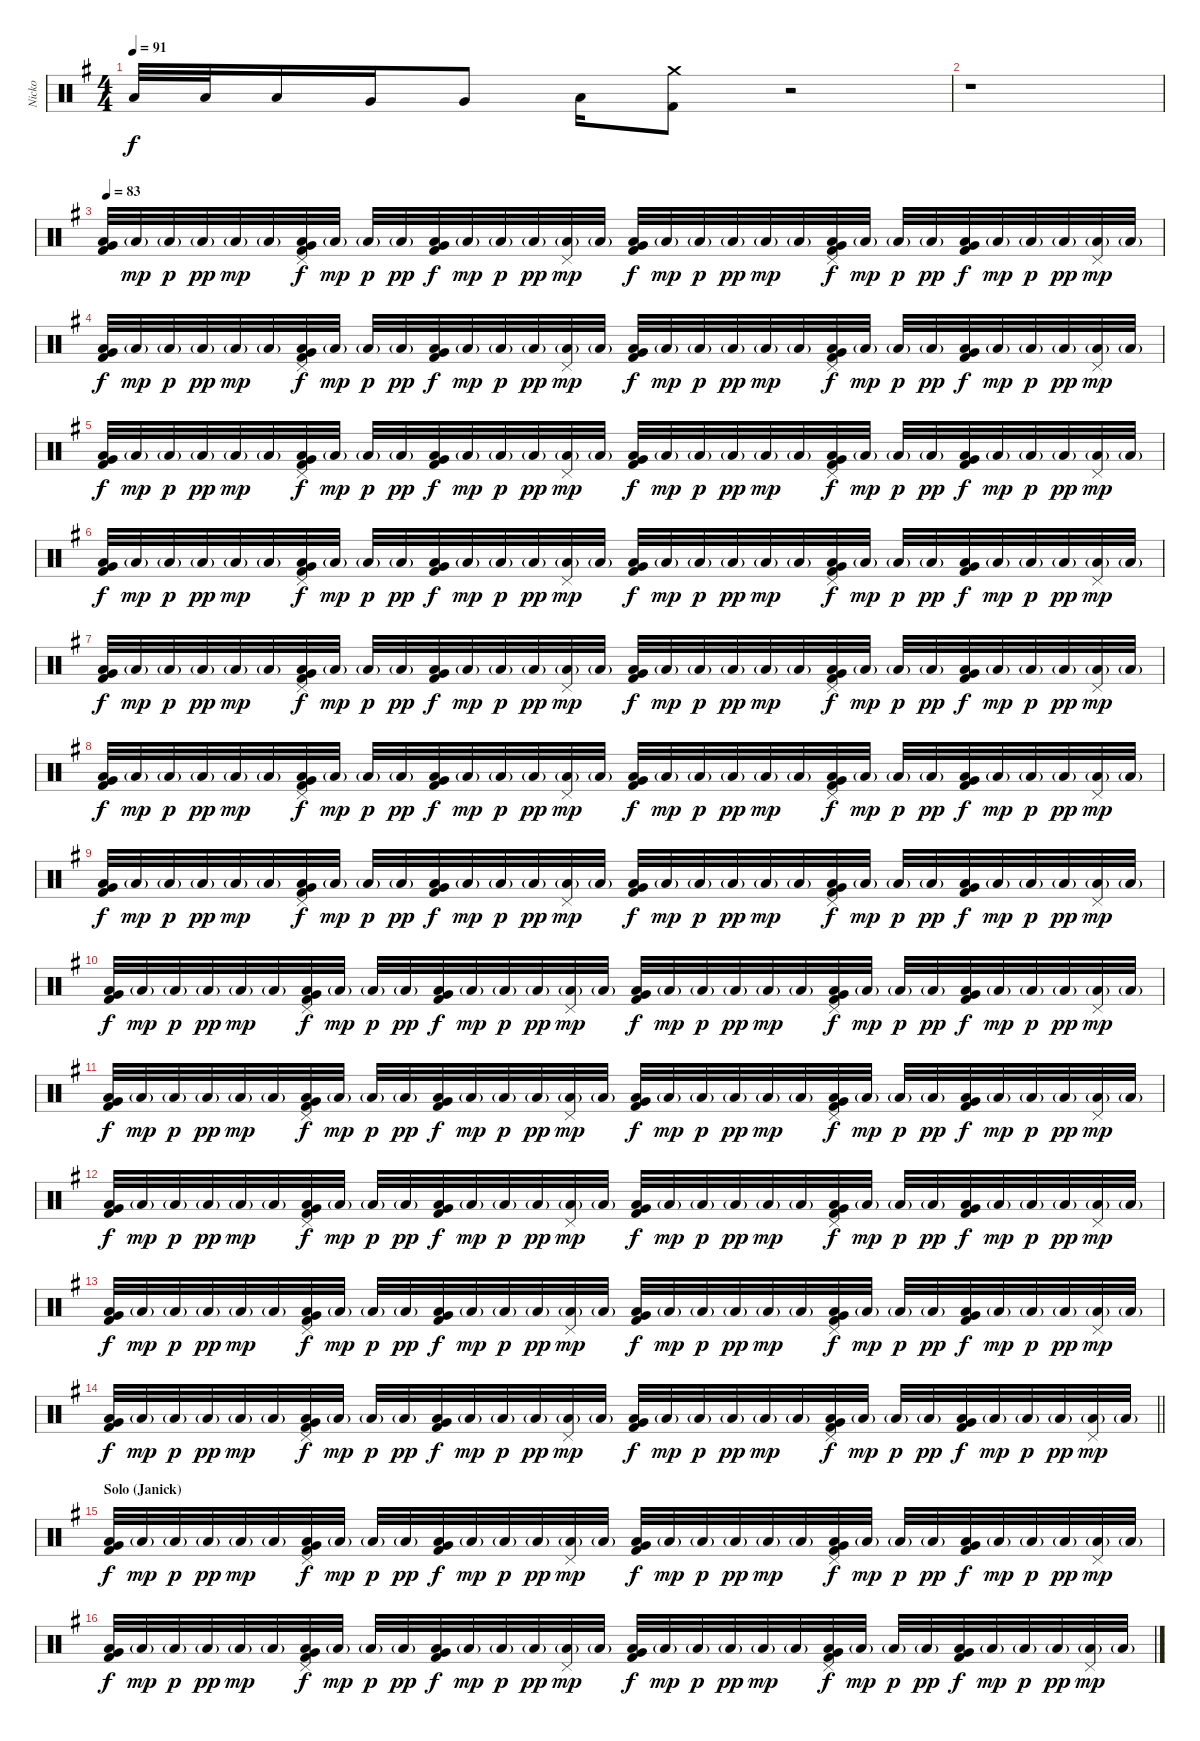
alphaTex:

\track ("Nicko" "Nicko") {instrument percussion}
\staff {score}
\articulation defaults
\ts (4 4)
\tempo 91
\clef neutral
\ks eminor "Low Tom (hit)".32{dy f} "Low Tom (hit)".32 "Low Tom (hit)".16 "Very Low Tom (hit)".16 "Very Low Tom (hit)".8 "Low Floor Tom (hit)".16
("Crash medium (hit)" "Kick (hit) 2").8 r.2 |
r.1 |
\tempo 83
("Low Floor Tom (hit)" "Very Low Tom (hit)" "Kick (hit) 2").32 "Low Floor Tom (hit)"{g}.32{dy mp} "Low Floor Tom (hit)"{g}.32{dy p} "Low Floor Tom (hit)"{g}.32{dy pp} "Low Floor Tom (hit)"{g}.32{dy mp} "Low Floor Tom (hit)"{g}.32 ("Pedal Hi-Hat (hit)" "Low Floor Tom (hit)" "Very Low Tom (hit)" "Kick (hit) 2").32{dy f} "Low Floor Tom (hit)"{g}.32{dy mp} "Low Floor Tom (hit)"{g}.32{dy p} "Low Floor Tom (hit)"{g}.32{dy pp} ("Low Floor Tom (hit)" "Very Low Tom (hit)" "Kick (hit) 2").32{dy f} "Low Floor Tom (hit)"{g}.32{dy mp} "Low Floor Tom (hit)"{g}.32{dy p} "Low Floor Tom (hit)"{g}.32{dy pp} ("Pedal Hi-Hat (hit)" "Low Floor Tom (hit)"{g}).32{dy mp} "Low Floor Tom (hit)"{g}.32 ("Low Floor Tom (hit)" "Very Low Tom (hit)" "Kick (hit) 2").32{dy f} "Low Floor Tom (hit)"{g}.32{dy mp} "Low Floor Tom (hit)"{g}.32{dy p} "Low Floor Tom (hit)"{g}.32{dy pp} "Low Floor Tom (hit)"{g}.32{dy mp} "Low Floor Tom (hit)"{g}.32 ("Pedal Hi-Hat (hit)" "Low Floor Tom (hit)" "Very Low Tom (hit)" "Kick (hit) 2").32{dy f} "Low Floor Tom (hit)"{g}.32{dy mp} "Low Floor Tom (hit)"{g}.32{dy p} "Low Floor Tom (hit)"{g}.32{dy pp} ("Low Floor Tom (hit)" "Very Low Tom (hit)" "Kick (hit) 2").32{dy f} "Low Floor Tom (hit)"{g}.32{dy mp} "Low Floor Tom (hit)"{g}.32{dy p} "Low Floor Tom (hit)"{g}.32{dy pp} ("Pedal Hi-Hat (hit)" "Low Floor Tom (hit)"{g}).32{dy mp} "Low Floor Tom (hit)"{g}.32 |
("Low Floor Tom (hit)" "Very Low Tom (hit)" "Kick (hit) 2").32{dy f} "Low Floor Tom (hit)"{g}.32{dy mp} "Low Floor Tom (hit)"{g}.32{dy p} "Low Floor Tom (hit)"{g}.32{dy pp} "Low Floor Tom (hit)"{g}.32{dy mp} "Low Floor Tom (hit)"{g}.32 ("Pedal Hi-Hat (hit)" "Low Floor Tom (hit)" "Very Low Tom (hit)" "Kick (hit) 2").32{dy f} "Low Floor Tom (hit)"{g}.32{dy mp} "Low Floor Tom (hit)"{g}.32{dy p} "Low Floor Tom (hit)"{g}.32{dy pp} ("Low Floor Tom (hit)" "Very Low Tom (hit)" "Kick (hit) 2").32{dy f} "Low Floor Tom (hit)"{g}.32{dy mp} "Low Floor Tom (hit)"{g}.32{dy p} "Low Floor Tom (hit)"{g}.32{dy pp} ("Pedal Hi-Hat (hit)" "Low Floor Tom (hit)"{g}).32{dy mp} "Low Floor Tom (hit)"{g}.32 ("Low Floor Tom (hit)" "Very Low Tom (hit)" "Kick (hit) 2").32{dy f} "Low Floor Tom (hit)"{g}.32{dy mp} "Low Floor Tom (hit)"{g}.32{dy p} "Low Floor Tom (hit)"{g}.32{dy pp} "Low Floor Tom (hit)"{g}.32{dy mp} "Low Floor Tom (hit)"{g}.32 ("Pedal Hi-Hat (hit)" "Low Floor Tom (hit)" "Very Low Tom (hit)" "Kick (hit) 2").32{dy f} "Low Floor Tom (hit)"{g}.32{dy mp} "Low Floor Tom (hit)"{g}.32{dy p} "Low Floor Tom (hit)"{g}.32{dy pp} ("Low Floor Tom (hit)" "Very Low Tom (hit)" "Kick (hit) 2").32{dy f} "Low Floor Tom (hit)"{g}.32{dy mp} "Low Floor Tom (hit)"{g}.32{dy p} "Low Floor Tom (hit)"{g}.32{dy pp} ("Pedal Hi-Hat (hit)" "Low Floor Tom (hit)"{g}).32{dy mp} "Low Floor Tom (hit)"{g}.32 |
("Low Floor Tom (hit)" "Very Low Tom (hit)" "Kick (hit) 2").32{dy f} "Low Floor Tom (hit)"{g}.32{dy mp} "Low Floor Tom (hit)"{g}.32{dy p} "Low Floor Tom (hit)"{g}.32{dy pp} "Low Floor Tom (hit)"{g}.32{dy mp} "Low Floor Tom (hit)"{g}.32 ("Pedal Hi-Hat (hit)" "Low Floor Tom (hit)" "Very Low Tom (hit)" "Kick (hit) 2").32{dy f} "Low Floor Tom (hit)"{g}.32{dy mp} "Low Floor Tom (hit)"{g}.32{dy p} "Low Floor Tom (hit)"{g}.32{dy pp} ("Low Floor Tom (hit)" "Very Low Tom (hit)" "Kick (hit) 2").32{dy f} "Low Floor Tom (hit)"{g}.32{dy mp} "Low Floor Tom (hit)"{g}.32{dy p} "Low Floor Tom (hit)"{g}.32{dy pp} ("Pedal Hi-Hat (hit)" "Low Floor Tom (hit)"{g}).32{dy mp} "Low Floor Tom (hit)"{g}.32 ("Low Floor Tom (hit)" "Very Low Tom (hit)" "Kick (hit) 2").32{dy f} "Low Floor Tom (hit)"{g}.32{dy mp} "Low Floor Tom (hit)"{g}.32{dy p} "Low Floor Tom (hit)"{g}.32{dy pp} "Low Floor Tom (hit)"{g}.32{dy mp} "Low Floor Tom (hit)"{g}.32 ("Pedal Hi-Hat (hit)" "Low Floor Tom (hit)" "Very Low Tom (hit)" "Kick (hit) 2").32{dy f} "Low Floor Tom (hit)"{g}.32{dy mp} "Low Floor Tom (hit)"{g}.32{dy p} "Low Floor Tom (hit)"{g}.32{dy pp} ("Low Floor Tom (hit)" "Very Low Tom (hit)" "Kick (hit) 2").32{dy f} "Low Floor Tom (hit)"{g}.32{dy mp} "Low Floor Tom (hit)"{g}.32{dy p} "Low Floor Tom (hit)"{g}.32{dy pp} ("Pedal Hi-Hat (hit)" "Low Floor Tom (hit)"{g}).32{dy mp} "Low Floor Tom (hit)"{g}.32 |
("Low Floor Tom (hit)" "Very Low Tom (hit)" "Kick (hit) 2").32{dy f} "Low Floor Tom (hit)"{g}.32{dy mp} "Low Floor Tom (hit)"{g}.32{dy p} "Low Floor Tom (hit)"{g}.32{dy pp} "Low Floor Tom (hit)"{g}.32{dy mp} "Low Floor Tom (hit)"{g}.32 ("Pedal Hi-Hat (hit)" "Low Floor Tom (hit)" "Very Low Tom (hit)" "Kick (hit) 2").32{dy f} "Low Floor Tom (hit)"{g}.32{dy mp} "Low Floor Tom (hit)"{g}.32{dy p} "Low Floor Tom (hit)"{g}.32{dy pp} ("Low Floor Tom (hit)" "Very Low Tom (hit)" "Kick (hit) 2").32{dy f} "Low Floor Tom (hit)"{g}.32{dy mp} "Low Floor Tom (hit)"{g}.32{dy p} "Low Floor Tom (hit)"{g}.32{dy pp} ("Pedal Hi-Hat (hit)" "Low Floor Tom (hit)"{g}).32{dy mp} "Low Floor Tom (hit)"{g}.32 ("Low Floor Tom (hit)" "Very Low Tom (hit)" "Kick (hit) 2").32{dy f} "Low Floor Tom (hit)"{g}.32{dy mp} "Low Floor Tom (hit)"{g}.32{dy p} "Low Floor Tom (hit)"{g}.32{dy pp} "Low Floor Tom (hit)"{g}.32{dy mp} "Low Floor Tom (hit)"{g}.32 ("Pedal Hi-Hat (hit)" "Low Floor Tom (hit)" "Very Low Tom (hit)" "Kick (hit) 2").32{dy f} "Low Floor Tom (hit)"{g}.32{dy mp} "Low Floor Tom (hit)"{g}.32{dy p} "Low Floor Tom (hit)"{g}.32{dy pp} ("Low Floor Tom (hit)" "Very Low Tom (hit)" "Kick (hit) 2").32{dy f} "Low Floor Tom (hit)"{g}.32{dy mp} "Low Floor Tom (hit)"{g}.32{dy p} "Low Floor Tom (hit)"{g}.32{dy pp} ("Pedal Hi-Hat (hit)" "Low Floor Tom (hit)"{g}).32{dy mp} "Low Floor Tom (hit)"{g}.32 |
("Low Floor Tom (hit)" "Very Low Tom (hit)" "Kick (hit) 2").32{dy f} "Low Floor Tom (hit)"{g}.32{dy mp} "Low Floor Tom (hit)"{g}.32{dy p} "Low Floor Tom (hit)"{g}.32{dy pp} "Low Floor Tom (hit)"{g}.32{dy mp} "Low Floor Tom (hit)"{g}.32 ("Pedal Hi-Hat (hit)" "Low Floor Tom (hit)" "Very Low Tom (hit)" "Kick (hit) 2").32{dy f} "Low Floor Tom (hit)"{g}.32{dy mp} "Low Floor Tom (hit)"{g}.32{dy p} "Low Floor Tom (hit)"{g}.32{dy pp} ("Low Floor Tom (hit)" "Very Low Tom (hit)" "Kick (hit) 2").32{dy f} "Low Floor Tom (hit)"{g}.32{dy mp} "Low Floor Tom (hit)"{g}.32{dy p} "Low Floor Tom (hit)"{g}.32{dy pp} ("Pedal Hi-Hat (hit)" "Low Floor Tom (hit)"{g}).32{dy mp} "Low Floor Tom (hit)"{g}.32 ("Low Floor Tom (hit)" "Very Low Tom (hit)" "Kick (hit) 2").32{dy f} "Low Floor Tom (hit)"{g}.32{dy mp} "Low Floor Tom (hit)"{g}.32{dy p} "Low Floor Tom (hit)"{g}.32{dy pp} "Low Floor Tom (hit)"{g}.32{dy mp} "Low Floor Tom (hit)"{g}.32 ("Pedal Hi-Hat (hit)" "Low Floor Tom (hit)" "Very Low Tom (hit)" "Kick (hit) 2").32{dy f} "Low Floor Tom (hit)"{g}.32{dy mp} "Low Floor Tom (hit)"{g}.32{dy p} "Low Floor Tom (hit)"{g}.32{dy pp} ("Low Floor Tom (hit)" "Very Low Tom (hit)" "Kick (hit) 2").32{dy f} "Low Floor Tom (hit)"{g}.32{dy mp} "Low Floor Tom (hit)"{g}.32{dy p} "Low Floor Tom (hit)"{g}.32{dy pp} ("Pedal Hi-Hat (hit)" "Low Floor Tom (hit)"{g}).32{dy mp} "Low Floor Tom (hit)"{g}.32 |
("Low Floor Tom (hit)" "Very Low Tom (hit)" "Kick (hit) 2").32{dy f} "Low Floor Tom (hit)"{g}.32{dy mp} "Low Floor Tom (hit)"{g}.32{dy p} "Low Floor Tom (hit)"{g}.32{dy pp} "Low Floor Tom (hit)"{g}.32{dy mp} "Low Floor Tom (hit)"{g}.32 ("Pedal Hi-Hat (hit)" "Low Floor Tom (hit)" "Very Low Tom (hit)" "Kick (hit) 2").32{dy f} "Low Floor Tom (hit)"{g}.32{dy mp} "Low Floor Tom (hit)"{g}.32{dy p} "Low Floor Tom (hit)"{g}.32{dy pp} ("Low Floor Tom (hit)" "Very Low Tom (hit)" "Kick (hit) 2").32{dy f} "Low Floor Tom (hit)"{g}.32{dy mp} "Low Floor Tom (hit)"{g}.32{dy p} "Low Floor Tom (hit)"{g}.32{dy pp} ("Pedal Hi-Hat (hit)" "Low Floor Tom (hit)"{g}).32{dy mp} "Low Floor Tom (hit)"{g}.32 ("Low Floor Tom (hit)" "Very Low Tom (hit)" "Kick (hit) 2").32{dy f} "Low Floor Tom (hit)"{g}.32{dy mp} "Low Floor Tom (hit)"{g}.32{dy p} "Low Floor Tom (hit)"{g}.32{dy pp} "Low Floor Tom (hit)"{g}.32{dy mp} "Low Floor Tom (hit)"{g}.32 ("Pedal Hi-Hat (hit)" "Low Floor Tom (hit)" "Very Low Tom (hit)" "Kick (hit) 2").32{dy f} "Low Floor Tom (hit)"{g}.32{dy mp} "Low Floor Tom (hit)"{g}.32{dy p} "Low Floor Tom (hit)"{g}.32{dy pp} ("Low Floor Tom (hit)" "Very Low Tom (hit)" "Kick (hit) 2").32{dy f} "Low Floor Tom (hit)"{g}.32{dy mp} "Low Floor Tom (hit)"{g}.32{dy p} "Low Floor Tom (hit)"{g}.32{dy pp} ("Pedal Hi-Hat (hit)" "Low Floor Tom (hit)"{g}).32{dy mp} "Low Floor Tom (hit)"{g}.32 |
("Low Floor Tom (hit)" "Very Low Tom (hit)" "Kick (hit) 2").32{dy f} "Low Floor Tom (hit)"{g}.32{dy mp} "Low Floor Tom (hit)"{g}.32{dy p} "Low Floor Tom (hit)"{g}.32{dy pp} "Low Floor Tom (hit)"{g}.32{dy mp} "Low Floor Tom (hit)"{g}.32 ("Pedal Hi-Hat (hit)" "Low Floor Tom (hit)" "Very Low Tom (hit)" "Kick (hit) 2").32{dy f} "Low Floor Tom (hit)"{g}.32{dy mp} "Low Floor Tom (hit)"{g}.32{dy p} "Low Floor Tom (hit)"{g}.32{dy pp} ("Low Floor Tom (hit)" "Very Low Tom (hit)" "Kick (hit) 2").32{dy f} "Low Floor Tom (hit)"{g}.32{dy mp} "Low Floor Tom (hit)"{g}.32{dy p} "Low Floor Tom (hit)"{g}.32{dy pp} ("Pedal Hi-Hat (hit)" "Low Floor Tom (hit)"{g}).32{dy mp} "Low Floor Tom (hit)"{g}.32 ("Low Floor Tom (hit)" "Very Low Tom (hit)" "Kick (hit) 2").32{dy f} "Low Floor Tom (hit)"{g}.32{dy mp} "Low Floor Tom (hit)"{g}.32{dy p} "Low Floor Tom (hit)"{g}.32{dy pp} "Low Floor Tom (hit)"{g}.32{dy mp} "Low Floor Tom (hit)"{g}.32 ("Pedal Hi-Hat (hit)" "Low Floor Tom (hit)" "Very Low Tom (hit)" "Kick (hit) 2").32{dy f} "Low Floor Tom (hit)"{g}.32{dy mp} "Low Floor Tom (hit)"{g}.32{dy p} "Low Floor Tom (hit)"{g}.32{dy pp} ("Low Floor Tom (hit)" "Very Low Tom (hit)" "Kick (hit) 2").32{dy f} "Low Floor Tom (hit)"{g}.32{dy mp} "Low Floor Tom (hit)"{g}.32{dy p} "Low Floor Tom (hit)"{g}.32{dy pp} ("Pedal Hi-Hat (hit)" "Low Floor Tom (hit)"{g}).32{dy mp} "Low Floor Tom (hit)"{g}.32 |
("Low Floor Tom (hit)" "Very Low Tom (hit)" "Kick (hit) 2").32{dy f} "Low Floor Tom (hit)"{g}.32{dy mp} "Low Floor Tom (hit)"{g}.32{dy p} "Low Floor Tom (hit)"{g}.32{dy pp} "Low Floor Tom (hit)"{g}.32{dy mp} "Low Floor Tom (hit)"{g}.32 ("Pedal Hi-Hat (hit)" "Low Floor Tom (hit)" "Very Low Tom (hit)" "Kick (hit) 2").32{dy f} "Low Floor Tom (hit)"{g}.32{dy mp} "Low Floor Tom (hit)"{g}.32{dy p} "Low Floor Tom (hit)"{g}.32{dy pp} ("Low Floor Tom (hit)" "Very Low Tom (hit)" "Kick (hit) 2").32{dy f} "Low Floor Tom (hit)"{g}.32{dy mp} "Low Floor Tom (hit)"{g}.32{dy p} "Low Floor Tom (hit)"{g}.32{dy pp} ("Pedal Hi-Hat (hit)" "Low Floor Tom (hit)"{g}).32{dy mp} "Low Floor Tom (hit)"{g}.32 ("Low Floor Tom (hit)" "Very Low Tom (hit)" "Kick (hit) 2").32{dy f} "Low Floor Tom (hit)"{g}.32{dy mp} "Low Floor Tom (hit)"{g}.32{dy p} "Low Floor Tom (hit)"{g}.32{dy pp} "Low Floor Tom (hit)"{g}.32{dy mp} "Low Floor Tom (hit)"{g}.32 ("Pedal Hi-Hat (hit)" "Low Floor Tom (hit)" "Very Low Tom (hit)" "Kick (hit) 2").32{dy f} "Low Floor Tom (hit)"{g}.32{dy mp} "Low Floor Tom (hit)"{g}.32{dy p} "Low Floor Tom (hit)"{g}.32{dy pp} ("Low Floor Tom (hit)" "Very Low Tom (hit)" "Kick (hit) 2").32{dy f} "Low Floor Tom (hit)"{g}.32{dy mp} "Low Floor Tom (hit)"{g}.32{dy p} "Low Floor Tom (hit)"{g}.32{dy pp} ("Pedal Hi-Hat (hit)" "Low Floor Tom (hit)"{g}).32{dy mp} "Low Floor Tom (hit)"{g}.32 |
("Low Floor Tom (hit)" "Very Low Tom (hit)" "Kick (hit) 2").32{dy f} "Low Floor Tom (hit)"{g}.32{dy mp} "Low Floor Tom (hit)"{g}.32{dy p} "Low Floor Tom (hit)"{g}.32{dy pp} "Low Floor Tom (hit)"{g}.32{dy mp} "Low Floor Tom (hit)"{g}.32 ("Pedal Hi-Hat (hit)" "Low Floor Tom (hit)" "Very Low Tom (hit)" "Kick (hit) 2").32{dy f} "Low Floor Tom (hit)"{g}.32{dy mp} "Low Floor Tom (hit)"{g}.32{dy p} "Low Floor Tom (hit)"{g}.32{dy pp} ("Low Floor Tom (hit)" "Very Low Tom (hit)" "Kick (hit) 2").32{dy f} "Low Floor Tom (hit)"{g}.32{dy mp} "Low Floor Tom (hit)"{g}.32{dy p} "Low Floor Tom (hit)"{g}.32{dy pp} ("Pedal Hi-Hat (hit)" "Low Floor Tom (hit)"{g}).32{dy mp} "Low Floor Tom (hit)"{g}.32 ("Low Floor Tom (hit)" "Very Low Tom (hit)" "Kick (hit) 2").32{dy f} "Low Floor Tom (hit)"{g}.32{dy mp} "Low Floor Tom (hit)"{g}.32{dy p} "Low Floor Tom (hit)"{g}.32{dy pp} "Low Floor Tom (hit)"{g}.32{dy mp} "Low Floor Tom (hit)"{g}.32 ("Pedal Hi-Hat (hit)" "Low Floor Tom (hit)" "Very Low Tom (hit)" "Kick (hit) 2").32{dy f} "Low Floor Tom (hit)"{g}.32{dy mp} "Low Floor Tom (hit)"{g}.32{dy p} "Low Floor Tom (hit)"{g}.32{dy pp} ("Low Floor Tom (hit)" "Very Low Tom (hit)" "Kick (hit) 2").32{dy f} "Low Floor Tom (hit)"{g}.32{dy mp} "Low Floor Tom (hit)"{g}.32{dy p} "Low Floor Tom (hit)"{g}.32{dy pp} ("Pedal Hi-Hat (hit)" "Low Floor Tom (hit)"{g}).32{dy mp} "Low Floor Tom (hit)"{g}.32 |
("Low Floor Tom (hit)" "Very Low Tom (hit)" "Kick (hit) 2").32{dy f} "Low Floor Tom (hit)"{g}.32{dy mp} "Low Floor Tom (hit)"{g}.32{dy p} "Low Floor Tom (hit)"{g}.32{dy pp} "Low Floor Tom (hit)"{g}.32{dy mp} "Low Floor Tom (hit)"{g}.32 ("Pedal Hi-Hat (hit)" "Low Floor Tom (hit)" "Very Low Tom (hit)" "Kick (hit) 2").32{dy f} "Low Floor Tom (hit)"{g}.32{dy mp} "Low Floor Tom (hit)"{g}.32{dy p} "Low Floor Tom (hit)"{g}.32{dy pp} ("Low Floor Tom (hit)" "Very Low Tom (hit)" "Kick (hit) 2").32{dy f} "Low Floor Tom (hit)"{g}.32{dy mp} "Low Floor Tom (hit)"{g}.32{dy p} "Low Floor Tom (hit)"{g}.32{dy pp} ("Pedal Hi-Hat (hit)" "Low Floor Tom (hit)"{g}).32{dy mp} "Low Floor Tom (hit)"{g}.32 ("Low Floor Tom (hit)" "Very Low Tom (hit)" "Kick (hit) 2").32{dy f} "Low Floor Tom (hit)"{g}.32{dy mp} "Low Floor Tom (hit)"{g}.32{dy p} "Low Floor Tom (hit)"{g}.32{dy pp} "Low Floor Tom (hit)"{g}.32{dy mp} "Low Floor Tom (hit)"{g}.32 ("Pedal Hi-Hat (hit)" "Low Floor Tom (hit)" "Very Low Tom (hit)" "Kick (hit) 2").32{dy f} "Low Floor Tom (hit)"{g}.32{dy mp} "Low Floor Tom (hit)"{g}.32{dy p} "Low Floor Tom (hit)"{g}.32{dy pp} ("Low Floor Tom (hit)" "Very Low Tom (hit)" "Kick (hit) 2").32{dy f} "Low Floor Tom (hit)"{g}.32{dy mp} "Low Floor Tom (hit)"{g}.32{dy p} "Low Floor Tom (hit)"{g}.32{dy pp} ("Pedal Hi-Hat (hit)" "Low Floor Tom (hit)"{g}).32{dy mp} "Low Floor Tom (hit)"{g}.32 |
("Low Floor Tom (hit)" "Very Low Tom (hit)" "Kick (hit) 2").32{dy f} "Low Floor Tom (hit)"{g}.32{dy mp} "Low Floor Tom (hit)"{g}.32{dy p} "Low Floor Tom (hit)"{g}.32{dy pp} "Low Floor Tom (hit)"{g}.32{dy mp} "Low Floor Tom (hit)"{g}.32 ("Pedal Hi-Hat (hit)" "Low Floor Tom (hit)" "Very Low Tom (hit)" "Kick (hit) 2").32{dy f} "Low Floor Tom (hit)"{g}.32{dy mp} "Low Floor Tom (hit)"{g}.32{dy p} "Low Floor Tom (hit)"{g}.32{dy pp} ("Low Floor Tom (hit)" "Very Low Tom (hit)" "Kick (hit) 2").32{dy f} "Low Floor Tom (hit)"{g}.32{dy mp} "Low Floor Tom (hit)"{g}.32{dy p} "Low Floor Tom (hit)"{g}.32{dy pp} ("Pedal Hi-Hat (hit)" "Low Floor Tom (hit)"{g}).32{dy mp} "Low Floor Tom (hit)"{g}.32 ("Low Floor Tom (hit)" "Very Low Tom (hit)" "Kick (hit) 2").32{dy f} "Low Floor Tom (hit)"{g}.32{dy mp} "Low Floor Tom (hit)"{g}.32{dy p} "Low Floor Tom (hit)"{g}.32{dy pp} "Low Floor Tom (hit)"{g}.32{dy mp} "Low Floor Tom (hit)"{g}.32 ("Pedal Hi-Hat (hit)" "Low Floor Tom (hit)" "Very Low Tom (hit)" "Kick (hit) 2").32{dy f} "Low Floor Tom (hit)"{g}.32{dy mp} "Low Floor Tom (hit)"{g}.32{dy p} "Low Floor Tom (hit)"{g}.32{dy pp} ("Low Floor Tom (hit)" "Very Low Tom (hit)" "Kick (hit) 2").32{dy f} "Low Floor Tom (hit)"{g}.32{dy mp} "Low Floor Tom (hit)"{g}.32{dy p} "Low Floor Tom (hit)"{g}.32{dy pp} ("Pedal Hi-Hat (hit)" "Low Floor Tom (hit)"{g}).32{dy mp} "Low Floor Tom (hit)"{g}.32 |
\barLineRight lightlight
("Low Floor Tom (hit)" "Very Low Tom (hit)" "Kick (hit) 2").32{dy f} "Low Floor Tom (hit)"{g}.32{dy mp} "Low Floor Tom (hit)"{g}.32{dy p} "Low Floor Tom (hit)"{g}.32{dy pp} "Low Floor Tom (hit)"{g}.32{dy mp} "Low Floor Tom (hit)"{g}.32 ("Pedal Hi-Hat (hit)" "Low Floor Tom (hit)" "Very Low Tom (hit)" "Kick (hit) 2").32{dy f} "Low Floor Tom (hit)"{g}.32{dy mp} "Low Floor Tom (hit)"{g}.32{dy p} "Low Floor Tom (hit)"{g}.32{dy pp} ("Low Floor Tom (hit)" "Very Low Tom (hit)" "Kick (hit) 2").32{dy f} "Low Floor Tom (hit)"{g}.32{dy mp} "Low Floor Tom (hit)"{g}.32{dy p} "Low Floor Tom (hit)"{g}.32{dy pp} ("Pedal Hi-Hat (hit)" "Low Floor Tom (hit)"{g}).32{dy mp} "Low Floor Tom (hit)"{g}.32 ("Low Floor Tom (hit)" "Very Low Tom (hit)" "Kick (hit) 2").32{dy f} "Low Floor Tom (hit)"{g}.32{dy mp} "Low Floor Tom (hit)"{g}.32{dy p} "Low Floor Tom (hit)"{g}.32{dy pp} "Low Floor Tom (hit)"{g}.32{dy mp} "Low Floor Tom (hit)"{g}.32 ("Pedal Hi-Hat (hit)" "Low Floor Tom (hit)" "Very Low Tom (hit)" "Kick (hit) 2").32{dy f} "Low Floor Tom (hit)"{g}.32{dy mp} "Low Floor Tom (hit)"{g}.32{dy p} "Low Floor Tom (hit)"{g}.32{dy pp} ("Low Floor Tom (hit)" "Very Low Tom (hit)" "Kick (hit) 2").32{dy f} "Low Floor Tom (hit)"{g}.32{dy mp} "Low Floor Tom (hit)"{g}.32{dy p} "Low Floor Tom (hit)"{g}.32{dy pp} ("Pedal Hi-Hat (hit)" "Low Floor Tom (hit)"{g}).32{dy mp} "Low Floor Tom (hit)"{g}.32 |
\section ("" "Solo (Janick)")
("Low Floor Tom (hit)" "Very Low Tom (hit)" "Kick (hit) 2").32{dy f} "Low Floor Tom (hit)"{g}.32{dy mp} "Low Floor Tom (hit)"{g}.32{dy p} "Low Floor Tom (hit)"{g}.32{dy pp} "Low Floor Tom (hit)"{g}.32{dy mp} "Low Floor Tom (hit)"{g}.32 ("Pedal Hi-Hat (hit)" "Low Floor Tom (hit)" "Very Low Tom (hit)" "Kick (hit) 2").32{dy f} "Low Floor Tom (hit)"{g}.32{dy mp} "Low Floor Tom (hit)"{g}.32{dy p} "Low Floor Tom (hit)"{g}.32{dy pp} ("Low Floor Tom (hit)" "Very Low Tom (hit)" "Kick (hit) 2").32{dy f} "Low Floor Tom (hit)"{g}.32{dy mp} "Low Floor Tom (hit)"{g}.32{dy p} "Low Floor Tom (hit)"{g}.32{dy pp} ("Pedal Hi-Hat (hit)" "Low Floor Tom (hit)"{g}).32{dy mp} "Low Floor Tom (hit)"{g}.32 ("Low Floor Tom (hit)" "Very Low Tom (hit)" "Kick (hit) 2").32{dy f} "Low Floor Tom (hit)"{g}.32{dy mp} "Low Floor Tom (hit)"{g}.32{dy p} "Low Floor Tom (hit)"{g}.32{dy pp} "Low Floor Tom (hit)"{g}.32{dy mp} "Low Floor Tom (hit)"{g}.32 ("Pedal Hi-Hat (hit)" "Low Floor Tom (hit)" "Very Low Tom (hit)" "Kick (hit) 2").32{dy f} "Low Floor Tom (hit)"{g}.32{dy mp} "Low Floor Tom (hit)"{g}.32{dy p} "Low Floor Tom (hit)"{g}.32{dy pp} ("Low Floor Tom (hit)" "Very Low Tom (hit)" "Kick (hit) 2").32{dy f} "Low Floor Tom (hit)"{g}.32{dy mp} "Low Floor Tom (hit)"{g}.32{dy p} "Low Floor Tom (hit)"{g}.32{dy pp} ("Pedal Hi-Hat (hit)" "Low Floor Tom (hit)"{g}).32{dy mp} "Low Floor Tom (hit)"{g}.32 |
("Low Floor Tom (hit)" "Very Low Tom (hit)" "Kick (hit) 2").32{dy f} "Low Floor Tom (hit)"{g}.32{dy mp} "Low Floor Tom (hit)"{g}.32{dy p} "Low Floor Tom (hit)"{g}.32{dy pp} "Low Floor Tom (hit)"{g}.32{dy mp} "Low Floor Tom (hit)"{g}.32 ("Pedal Hi-Hat (hit)" "Low Floor Tom (hit)" "Very Low Tom (hit)" "Kick (hit) 2").32{dy f} "Low Floor Tom (hit)"{g}.32{dy mp} "Low Floor Tom (hit)"{g}.32{dy p} "Low Floor Tom (hit)"{g}.32{dy pp} ("Low Floor Tom (hit)" "Very Low Tom (hit)" "Kick (hit) 2").32{dy f} "Low Floor Tom (hit)"{g}.32{dy mp} "Low Floor Tom (hit)"{g}.32{dy p} "Low Floor Tom (hit)"{g}.32{dy pp} ("Pedal Hi-Hat (hit)" "Low Floor Tom (hit)"{g}).32{dy mp} "Low Floor Tom (hit)"{g}.32 ("Low Floor Tom (hit)" "Very Low Tom (hit)" "Kick (hit) 2").32{dy f} "Low Floor Tom (hit)"{g}.32{dy mp} "Low Floor Tom (hit)"{g}.32{dy p} "Low Floor Tom (hit)"{g}.32{dy pp} "Low Floor Tom (hit)"{g}.32{dy mp} "Low Floor Tom (hit)"{g}.32 ("Pedal Hi-Hat (hit)" "Low Floor Tom (hit)" "Very Low Tom (hit)" "Kick (hit) 2").32{dy f} "Low Floor Tom (hit)"{g}.32{dy mp} "Low Floor Tom (hit)"{g}.32{dy p} "Low Floor Tom (hit)"{g}.32{dy pp} ("Low Floor Tom (hit)" "Very Low Tom (hit)" "Kick (hit) 2").32{dy f} "Low Floor Tom (hit)"{g}.32{dy mp} "Low Floor Tom (hit)"{g}.32{dy p} "Low Floor Tom (hit)"{g}.32{dy pp} ("Pedal Hi-Hat (hit)" "Low Floor Tom (hit)"{g}).32{dy mp} "Low Floor Tom (hit)"{g}.32
